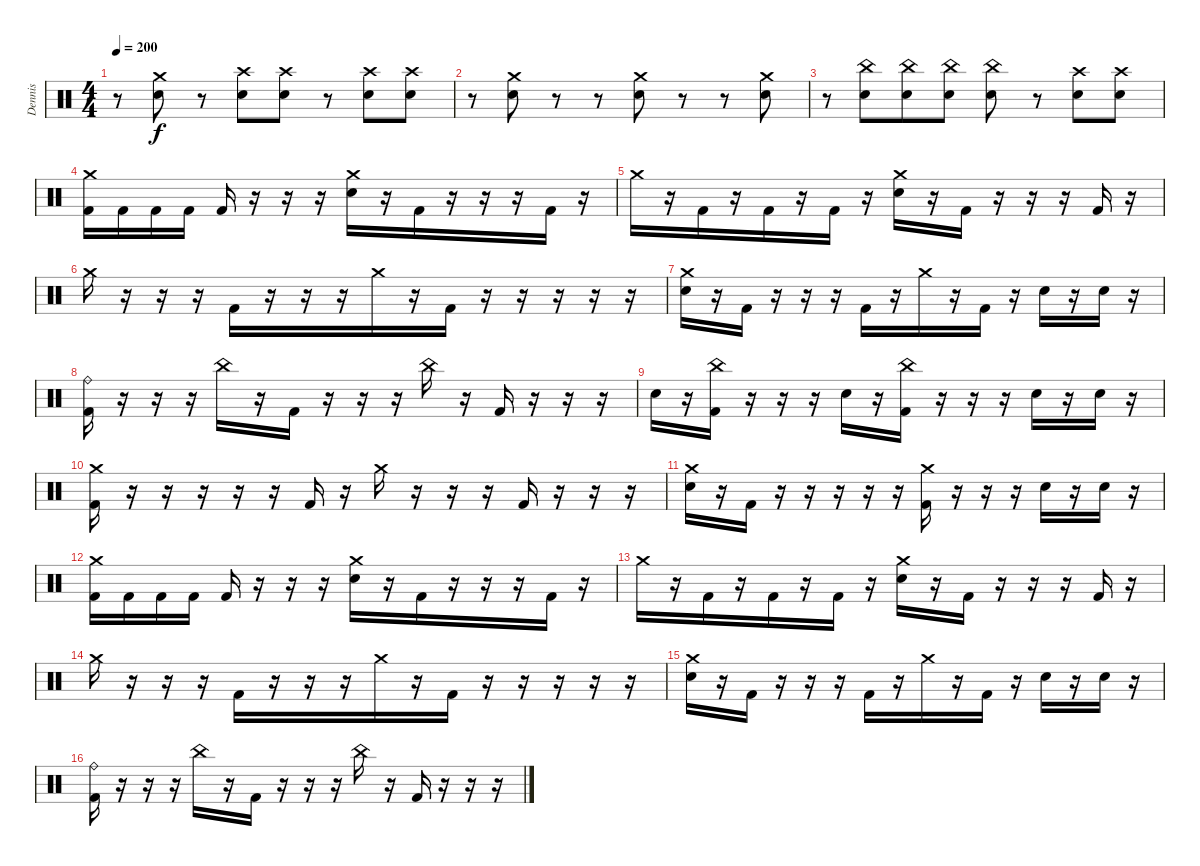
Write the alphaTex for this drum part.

\track ("Dennis" "Dennis") {instrument percussion}
\staff {score}
\articulation defaults
\ts (4 4)
\tempo 200
\clef neutral
\ks c
r.8{dy f} ("Electric Snare (hit)" "Crash medium (hit)").8 r.8{beam merge} ("Electric Snare (hit)" "Crash high (hit)").8{beam merge} ("Electric Snare (hit)" "Crash high (hit)").8 r.8{beam merge} ("Electric Snare (hit)" "Crash high (hit)").8 ("Electric Snare (hit)" "Crash high (hit)").8 |
r.8 ("Electric Snare (hit)" "Crash medium (hit)").8 r.8 r.8 ("Electric Snare (hit)" "Crash medium (hit)").8 r.8{beam merge} r.8{beam merge} ("Electric Snare (hit)" "Crash medium (hit)").8 |
r.8{beam merge} ("Electric Snare (hit)" "China (hit)").8{beam merge} ("Electric Snare (hit)" "China (hit)").8 ("Electric Snare (hit)" "China (hit)").8 ("Electric Snare (hit)" "China (hit)").8 r.8 ("Electric Snare (hit)" "Crash high (hit)").8{beam merge} ("Electric Snare (hit)" "Crash high (hit)").8 |
("Crash medium (hit)" "Kick (hit) 2").16 "Kick (hit) 2".16 "Kick (hit) 2".16 "Kick (hit) 2".16 "Kick (hit) 2".16 r.16 r.16 r.16 ("Crash medium (hit)" "Electric Snare (hit)").16 r.16{beam merge} "Kick (hit) 2".16{beam merge} r.16 r.16{beam merge} r.16 "Kick (hit) 2".16 r.16 |
"Crash medium (hit)".16 r.16{beam merge} "Kick (hit) 2".16{beam merge} r.16 "Kick (hit) 2".16{beam merge} r.16{beam merge} "Kick (hit) 2".16 r.16 ("Crash medium (hit)" "Electric Snare (hit)").16 r.16{beam merge} "Kick (hit) 2".16 r.16 r.16 r.16 "Kick (hit) 2".16 r.16 |
"Crash medium (hit)".16 r.16{beam merge} r.16{beam merge} r.16 "Kick (hit) 2".16{beam merge} r.16{beam merge} r.16 r.16 "Crash medium (hit)".16 r.16{beam merge} "Kick (hit) 2".16 r.16 r.16 r.16 r.16 r.16 |
("Crash medium (hit)" "Electric Snare (hit)").16{beam merge} r.16 "Kick (hit) 2".16 r.16 r.16{beam merge} r.16 "Kick (hit) 2".16{beam merge} r.16{beam merge} "Crash medium (hit)".16 r.16 "Kick (hit) 2".16 r.16{beam merge} "Electric Snare (hit)".16 r.16 "Electric Snare (hit)".16 r.16 |
("Ride (bell)" "Kick (hit) 2").16 r.16{beam merge} r.16{beam merge} r.16 "China (hit)".16{beam merge} r.16{beam merge} "Kick (hit) 2".16 r.16 r.16 r.16{beam merge} "China (hit)".16 r.16 "Kick (hit) 2".16 r.16 r.16 r.16 |
"Electric Snare (hit)".16{beam merge} r.16 ("China (hit)" "Kick (hit) 2").16 r.16 r.16{beam merge} r.16 "Electric Snare (hit)".16{beam merge} r.16{beam merge} ("China (hit)" "Kick (hit) 2").16 r.16 r.16 r.16{beam merge} "Electric Snare (hit)".16 r.16 "Electric Snare (hit)".16 r.16 |
("Crash medium (hit)" "Kick (hit) 2").16 r.16{beam merge} r.16{beam merge} r.16 r.16{beam merge} r.16{beam merge} "Kick (hit) 2".16 r.16 "Crash medium (hit)".16 r.16{beam merge} r.16 r.16 "Kick (hit) 2".16 r.16 r.16 r.16 |
("Crash medium (hit)" "Electric Snare (hit)").16{beam merge} r.16 "Kick (hit) 2".16 r.16 r.16{beam merge} r.16 r.16{beam merge} r.16{beam merge} ("Crash medium (hit)" "Kick (hit) 2").16 r.16 r.16 r.16{beam merge} "Electric Snare (hit)".16 r.16 "Electric Snare (hit)".16 r.16 |
("Crash medium (hit)" "Kick (hit) 2").16 "Kick (hit) 2".16 "Kick (hit) 2".16 "Kick (hit) 2".16 "Kick (hit) 2".16 r.16 r.16 r.16 ("Crash medium (hit)" "Electric Snare (hit)").16 r.16{beam merge} "Kick (hit) 2".16{beam merge} r.16 r.16{beam merge} r.16 "Kick (hit) 2".16 r.16 |
"Crash medium (hit)".16 r.16{beam merge} "Kick (hit) 2".16{beam merge} r.16 "Kick (hit) 2".16{beam merge} r.16{beam merge} "Kick (hit) 2".16 r.16 ("Crash medium (hit)" "Electric Snare (hit)").16 r.16{beam merge} "Kick (hit) 2".16 r.16 r.16 r.16 "Kick (hit) 2".16 r.16 |
"Crash medium (hit)".16 r.16{beam merge} r.16{beam merge} r.16 "Kick (hit) 2".16{beam merge} r.16{beam merge} r.16 r.16 "Crash medium (hit)".16 r.16{beam merge} "Kick (hit) 2".16 r.16 r.16 r.16 r.16 r.16 |
("Crash medium (hit)" "Electric Snare (hit)").16{beam merge} r.16 "Kick (hit) 2".16 r.16 r.16{beam merge} r.16 "Kick (hit) 2".16{beam merge} r.16{beam merge} "Crash medium (hit)".16 r.16 "Kick (hit) 2".16 r.16{beam merge} "Electric Snare (hit)".16 r.16 "Electric Snare (hit)".16 r.16 |
("Ride (bell)" "Kick (hit) 2").16 r.16{beam merge} r.16{beam merge} r.16 "China (hit)".16{beam merge} r.16{beam merge} "Kick (hit) 2".16 r.16 r.16 r.16{beam merge} "China (hit)".16 r.16 "Kick (hit) 2".16 r.16 r.16 r.16
